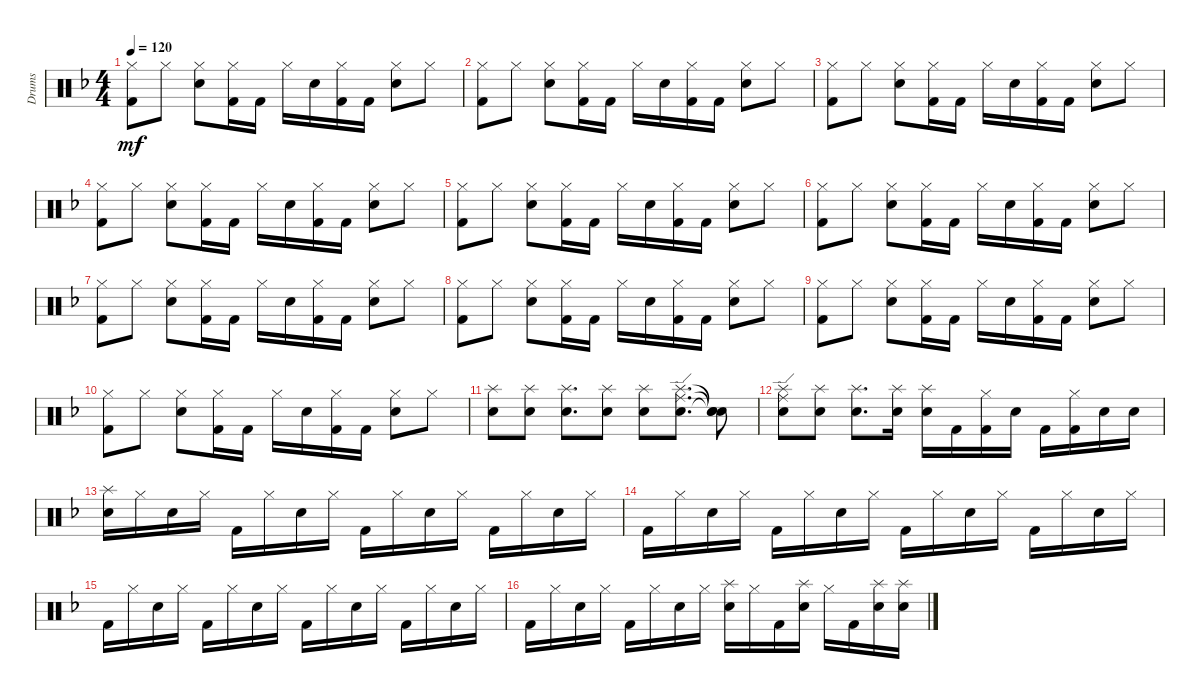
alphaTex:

\track ("Drums" "Drums") {instrument percussion}
\staff {score}
\articulation defaults
\ts (4 4)
\tempo 120
\clef neutral
\ks dminor
("Kick (hit) 2" "Hi-Hat (closed)").8{dy mf} "Hi-Hat (closed)".8 ("Snare (hit) 2" "Hi-Hat (closed)").8 ("Kick (hit) 2" "Hi-Hat (closed)").16 "Kick (hit) 2".16 "Hi-Hat (closed)".16 "Snare (hit) 2".16 ("Kick (hit) 2" "Hi-Hat (closed)").16 "Kick (hit) 2".16 ("Snare (hit) 2" "Hi-Hat (closed)").8 "Hi-Hat (closed)".8 |
("Kick (hit) 2" "Hi-Hat (closed)").8 "Hi-Hat (closed)".8 ("Snare (hit) 2" "Hi-Hat (closed)").8 ("Kick (hit) 2" "Hi-Hat (closed)").16 "Kick (hit) 2".16 "Hi-Hat (closed)".16 "Snare (hit) 2".16 ("Kick (hit) 2" "Hi-Hat (closed)").16 "Kick (hit) 2".16 ("Snare (hit) 2" "Hi-Hat (closed)").8 "Hi-Hat (closed)".8 |
("Kick (hit) 2" "Hi-Hat (closed)").8 "Hi-Hat (closed)".8 ("Snare (hit) 2" "Hi-Hat (closed)").8 ("Kick (hit) 2" "Hi-Hat (closed)").16 "Kick (hit) 2".16 "Hi-Hat (closed)".16 "Snare (hit) 2".16 ("Kick (hit) 2" "Hi-Hat (closed)").16 "Kick (hit) 2".16 ("Snare (hit) 2" "Hi-Hat (closed)").8 "Hi-Hat (closed)".8 |
("Kick (hit) 2" "Hi-Hat (closed)").8 "Hi-Hat (closed)".8 ("Snare (hit) 2" "Hi-Hat (closed)").8 ("Kick (hit) 2" "Hi-Hat (closed)").16 "Kick (hit) 2".16 "Hi-Hat (closed)".16 "Snare (hit) 2".16 ("Kick (hit) 2" "Hi-Hat (closed)").16 "Kick (hit) 2".16 ("Snare (hit) 2" "Hi-Hat (closed)").8 "Hi-Hat (closed)".8 |
("Kick (hit) 2" "Hi-Hat (closed)").8 "Hi-Hat (closed)".8 ("Snare (hit) 2" "Hi-Hat (closed)").8 ("Kick (hit) 2" "Hi-Hat (closed)").16 "Kick (hit) 2".16 "Hi-Hat (closed)".16 "Snare (hit) 2".16 ("Kick (hit) 2" "Hi-Hat (closed)").16 "Kick (hit) 2".16 ("Snare (hit) 2" "Hi-Hat (closed)").8 "Hi-Hat (closed)".8 |
("Kick (hit) 2" "Hi-Hat (closed)").8 "Hi-Hat (closed)".8 ("Snare (hit) 2" "Hi-Hat (closed)").8 ("Kick (hit) 2" "Hi-Hat (closed)").16 "Kick (hit) 2".16 "Hi-Hat (closed)".16 "Snare (hit) 2".16 ("Kick (hit) 2" "Hi-Hat (closed)").16 "Kick (hit) 2".16 ("Snare (hit) 2" "Hi-Hat (closed)").8 "Hi-Hat (closed)".8 |
("Kick (hit) 2" "Hi-Hat (closed)").8 "Hi-Hat (closed)".8 ("Snare (hit) 2" "Hi-Hat (closed)").8 ("Kick (hit) 2" "Hi-Hat (closed)").16 "Kick (hit) 2".16 "Hi-Hat (closed)".16 "Snare (hit) 2".16 ("Kick (hit) 2" "Hi-Hat (closed)").16 "Kick (hit) 2".16 ("Snare (hit) 2" "Hi-Hat (closed)").8 "Hi-Hat (closed)".8 |
("Kick (hit) 2" "Hi-Hat (closed)").8 "Hi-Hat (closed)".8 ("Snare (hit) 2" "Hi-Hat (closed)").8 ("Kick (hit) 2" "Hi-Hat (closed)").16 "Kick (hit) 2".16 "Hi-Hat (closed)".16 "Snare (hit) 2".16 ("Kick (hit) 2" "Hi-Hat (closed)").16 "Kick (hit) 2".16 ("Snare (hit) 2" "Hi-Hat (closed)").8 "Hi-Hat (closed)".8 |
("Kick (hit) 2" "Hi-Hat (closed)").8 "Hi-Hat (closed)".8 ("Snare (hit) 2" "Hi-Hat (closed)").8 ("Kick (hit) 2" "Hi-Hat (closed)").16 "Kick (hit) 2".16 "Hi-Hat (closed)".16 "Snare (hit) 2".16 ("Kick (hit) 2" "Hi-Hat (closed)").16 "Kick (hit) 2".16 ("Snare (hit) 2" "Hi-Hat (closed)").8 "Hi-Hat (closed)".8 |
("Kick (hit) 2" "Hi-Hat (closed)").8 "Hi-Hat (closed)".8 ("Snare (hit) 2" "Hi-Hat (closed)").8 ("Kick (hit) 2" "Hi-Hat (closed)").16 "Kick (hit) 2".16 "Hi-Hat (closed)".16 "Snare (hit) 2".16 ("Kick (hit) 2" "Hi-Hat (closed)").16 "Kick (hit) 2".16 ("Snare (hit) 2" "Hi-Hat (closed)").8 "Hi-Hat (closed)".8 |
("Snare (hit) 2" "Splash (hit)").8 ("Snare (hit) 2" "Splash (hit)").8 ("Snare (hit) 2" "Splash (hit)").8{d} ("Snare (hit) 2" "Splash (hit)").8 ("Snare (hit) 2" "Splash (hit)").8 ("Snare (hit) 2" "Splash (hit)" "Ride (edge)").8{d} ("Snare (hit)"{t} "Snare (hit)"{t} "Snare (hit)"{t}).8 |
("Snare (hit) 2" "Splash (hit)" "Ride (edge)").8 ("Snare (hit) 2" "Splash (hit)").8 ("Snare (hit) 2" "Splash (hit)").8{d} ("Snare (hit) 2" "Splash (hit)").16 ("Snare (hit) 2" "Splash (hit)").16 "Kick (hit) 2".16 ("Hi-Hat (closed)" "Kick (hit) 2").16 "Snare (hit) 2".16 "Kick (hit) 2".16 ("Hi-Hat (closed)" "Kick (hit) 2").16 "Snare (hit) 2".16 "Snare (hit) 2".16 |
\section ("" "")
("Snare (hit) 2" "Splash (hit)").16 "Hi-Hat (closed)".16 "Snare (hit) 2".16 "Hi-Hat (closed)".16 "Kick (hit) 2".16 "Hi-Hat (closed)".16 "Snare (hit) 2".16 "Hi-Hat (closed)".16 "Kick (hit) 2".16 "Hi-Hat (closed)".16 "Snare (hit) 2".16 "Hi-Hat (closed)".16 "Kick (hit) 2".16 "Hi-Hat (closed)".16 "Snare (hit) 2".16 "Hi-Hat (closed)".16 |
"Kick (hit) 2".16 "Hi-Hat (closed)".16 "Snare (hit) 2".16 "Hi-Hat (closed)".16 "Kick (hit) 2".16 "Hi-Hat (closed)".16 "Snare (hit) 2".16 "Hi-Hat (closed)".16 "Kick (hit) 2".16 "Hi-Hat (closed)".16 "Snare (hit) 2".16 "Hi-Hat (closed)".16 "Kick (hit) 2".16 "Hi-Hat (closed)".16 "Snare (hit) 2".16 "Hi-Hat (closed)".16 |
"Kick (hit) 2".16 "Hi-Hat (closed)".16 "Snare (hit) 2".16 "Hi-Hat (closed)".16 "Kick (hit) 2".16 "Hi-Hat (closed)".16 "Snare (hit) 2".16 "Hi-Hat (closed)".16 "Kick (hit) 2".16 "Hi-Hat (closed)".16 "Snare (hit) 2".16 "Hi-Hat (closed)".16 "Kick (hit) 2".16 "Hi-Hat (closed)".16 "Snare (hit) 2".16 "Hi-Hat (closed)".16 |
"Kick (hit) 2".16 "Hi-Hat (closed)".16 "Snare (hit) 2".16 "Hi-Hat (closed)".16 "Kick (hit) 2".16 "Hi-Hat (closed)".16 "Snare (hit) 2".16 "Hi-Hat (closed)".16 ("Snare (hit) 2" "Splash (hit)").16 "Hi-Hat (closed)".16 "Kick (hit) 2".16 ("Snare (hit) 2" "Splash (hit)").16 "Hi-Hat (closed)".16 "Kick (hit) 2".16 ("Snare (hit) 2" "Splash (hit)").16 ("Snare (hit) 2" "Splash (hit)").16
